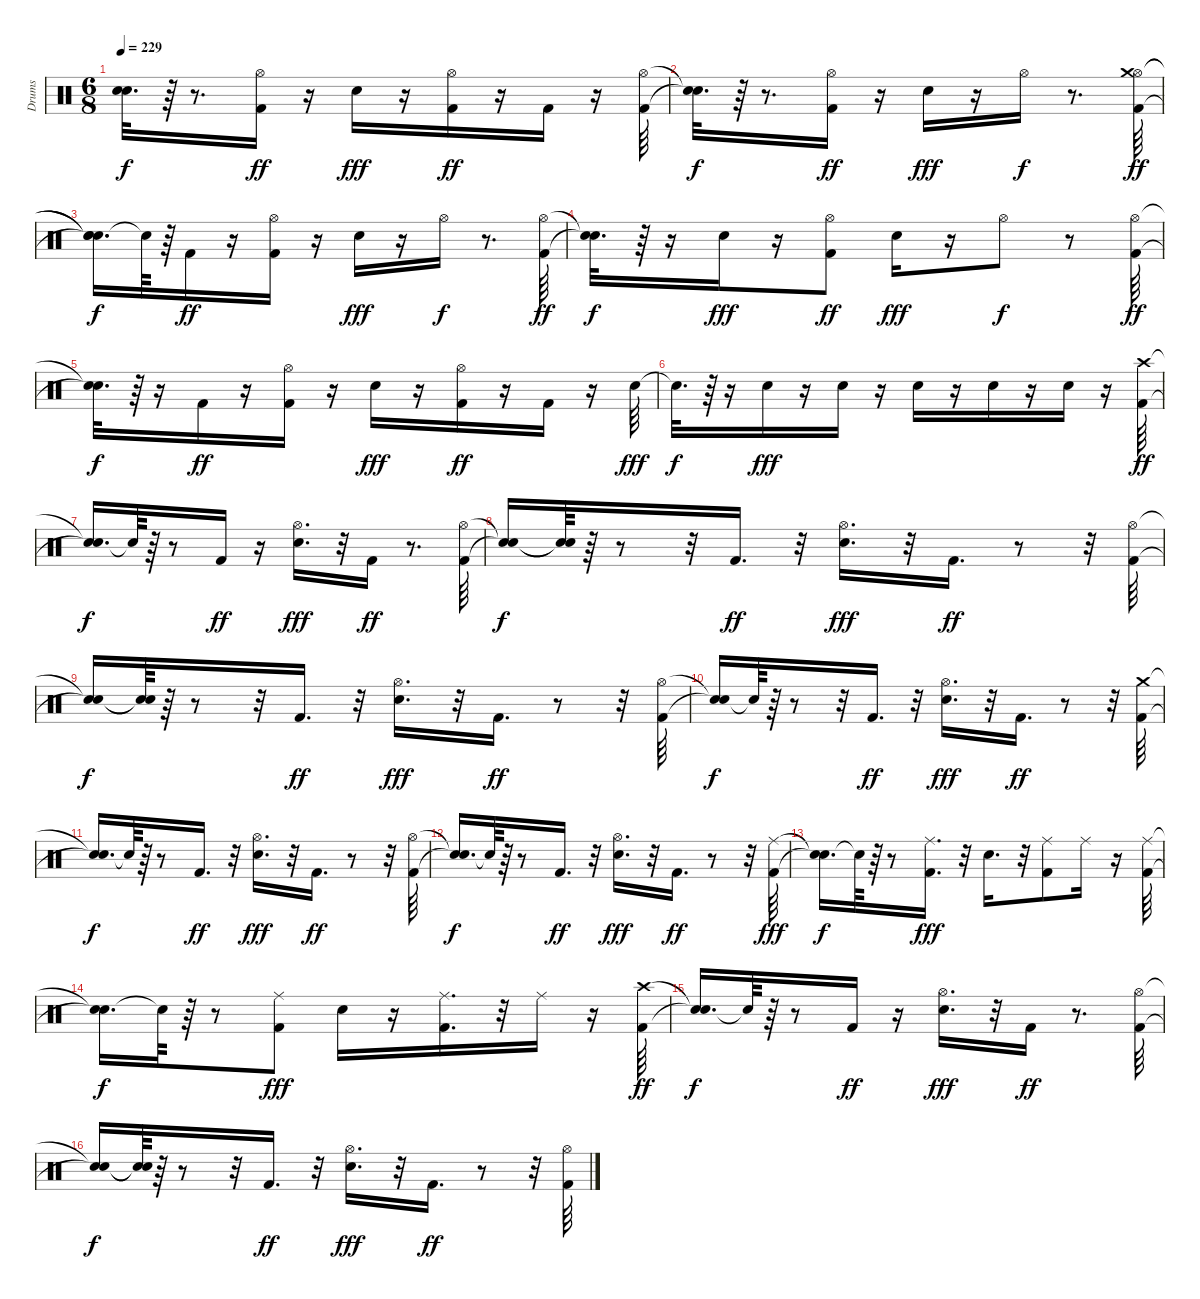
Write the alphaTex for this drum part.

\track ("Drums" "Drums") {instrument percussion}
\staff {score}
\articulation defaults
\ts (6 8)
\tempo 229
\clef neutral
\ks c
("Snare (hit)"{t} "Snare (hit)"{t}).32{d dy f} r.64 r.8{d} ("Kick (hit) 2" "Hi-Hat (open)").16{dy ff} r.16 "Snare (hit) 2".16{dy fff} r.16 ("Kick (hit) 2" "Hi-Hat (open)").16{dy ff} r.16 "Kick (hit) 2".16 r.16 ("Kick (hit) 2" "Hi-Hat (open)").64 |
("Snare (hit)"{t} "Snare (hit)"{t}).32{d dy f} r.64 r.8{d} ("Kick (hit) 2" "Hi-Hat (open)").16{dy ff} r.16 "Snare (hit) 2".16{dy fff} r.16 "Hi-Hat (open)".16{dy f} r.8{d} ("Kick (hit) 2" "Hi-Hat (open)" "Crash medium (hit)").64{dy ff} |
("Snare (hit)"{t} "Snare (hit)"{t} "Snare (hit)"{t}).16{d dy f} "Snare (hit)"{t}.64 r.64 "Kick (hit) 2".16{dy ff} r.16 ("Kick (hit) 2" "Hi-Hat (open)").16 r.16 "Snare (hit) 2".16{dy fff} r.16 "Hi-Hat (open)".16{dy f} r.8{d} ("Kick (hit) 2" "Hi-Hat (open)").64{dy ff} |
("Snare (hit)"{t} "Snare (hit)"{t}).32{d dy f} r.64 r.16 "Snare (hit) 2".16{dy fff} r.16 ("Kick (hit) 2" "Hi-Hat (open)").8{dy ff} "Snare (hit) 2".16{dy fff} r.16 "Hi-Hat (open)".8{dy f} r.8 ("Kick (hit) 2" "Hi-Hat (open)").64{dy ff} |
("Snare (hit)"{t} "Snare (hit)"{t}).32{d dy f} r.64 r.16 "Kick (hit) 2".16{dy ff} r.16 ("Kick (hit) 2" "Hi-Hat (open)").16 r.16 "Snare (hit) 2".16{dy fff} r.16 ("Kick (hit) 2" "Hi-Hat (open)").16{dy ff} r.16 "Kick (hit) 2".16 r.16 "Snare (hit) 2".64{dy fff} |
"Snare (hit)"{t}.32{d dy f} r.64 r.16 "Snare (hit) 2".16{dy fff} r.16 "Snare (hit) 2".16 r.16 "Snare (hit) 2".16 r.16 "Snare (hit) 2".16 r.16 "Snare (hit) 2".16 r.16 ("Kick (hit) 2" "Crash high (hit)").64{dy ff} |
("Snare (hit)"{t} "Snare (hit)"{t}).16{d dy f} "Snare (hit)"{t}.64 r.64 r.8 "Kick (hit) 2".16{dy ff} r.16 ("Snare (hit) 2" "Hi-Hat (open)").16{d dy fff} r.32 "Kick (hit) 2".16{dy ff} r.8{d} ("Kick (hit) 2" "Hi-Hat (open)").64 |
("Snare (hit)"{t} "Snare (hit)"{t}).16{dy f} ("Snare (hit)"{t} "Snare (hit)"{t}).64 r.64 r.8 r.32 "Kick (hit) 2".16{d dy ff} r.32 ("Snare (hit) 2" "Hi-Hat (open)").16{d dy fff} r.32 "Kick (hit) 2".16{d dy ff} r.8 r.32 ("Kick (hit) 2" "Hi-Hat (open)").64 |
("Snare (hit)"{t} "Snare (hit)"{t}).16{dy f} ("Snare (hit)"{t} "Snare (hit)"{t}).64 r.64 r.8 r.32 "Kick (hit) 2".16{d dy ff} r.32 ("Snare (hit) 2" "Hi-Hat (open)").16{d dy fff} r.32 "Kick (hit) 2".16{d dy ff} r.8 r.32 ("Kick (hit) 2" "Hi-Hat (open)").64 |
("Snare (hit)"{t} "Snare (hit)"{t}).16{dy f} "Snare (hit)"{t}.64 r.64 r.8 r.32 "Kick (hit) 2".16{d dy ff} r.32 ("Snare (hit) 2" "Hi-Hat (open)").16{d dy fff} r.32 "Kick (hit) 2".16{d dy ff} r.8 r.32 ("Kick (hit) 2" "Crash medium (hit)").64 |
("Snare (hit)"{t} "Snare (hit)"{t}).16{d dy f} "Snare (hit)"{t}.64 r.64 r.8 "Kick (hit) 2".16{d dy ff} r.32 ("Snare (hit) 2" "Hi-Hat (open)").16{d dy fff} r.32 "Kick (hit) 2".16{d dy ff} r.8 r.32 ("Kick (hit) 2" "Hi-Hat (open)").64 |
("Snare (hit)"{t} "Snare (hit)"{t}).16{d dy f} "Snare (hit)"{t}.64 r.64 r.8 "Kick (hit) 2".16{d dy ff} r.32 ("Snare (hit) 2" "Hi-Hat (open)").16{d dy fff} r.32 "Kick (hit) 2".16{d dy ff} r.8 r.32 ("Kick (hit) 2" "Ride (middle)").64{dy fff} |
("Snare (hit)"{t} "Snare (hit)"{t}).16{d dy f} "Snare (hit)"{t}.64 r.64 r.8 ("Kick (hit) 2" "Ride (middle)").16{d dy fff} r.32 "Snare (hit) 2".16{d} r.32 ("Kick (hit) 2" "Ride (middle)").8 "Ride (middle)".16 r.16 ("Kick (hit) 2" "Ride (middle)").64 |
("Snare (hit)"{t} "Snare (hit)"{t}).16{d dy f} "Snare (hit)"{t}.64 r.64 r.8 ("Kick (hit) 2" "Ride (middle)").8{dy fff} "Snare (hit) 2".16 r.16 ("Kick (hit) 2" "Ride (middle)").16{d} r.32 "Ride (middle)".16 r.16 ("Kick (hit) 2" "Crash high (hit)").64{dy ff} |
("Snare (hit)"{t} "Snare (hit)"{t}).16{d dy f} "Snare (hit)"{t}.64 r.64 r.8 "Kick (hit) 2".16{dy ff} r.16 ("Snare (hit) 2" "Hi-Hat (open)").16{d dy fff} r.32 "Kick (hit) 2".16{dy ff} r.8{d} ("Kick (hit) 2" "Hi-Hat (open)").64 |
("Snare (hit)"{t} "Snare (hit)"{t}).16{dy f} ("Snare (hit)"{t} "Snare (hit)"{t}).64 r.64 r.8 r.32 "Kick (hit) 2".16{d dy ff} r.32 ("Snare (hit) 2" "Hi-Hat (open)").16{d dy fff} r.32 "Kick (hit) 2".16{d dy ff} r.8 r.32 ("Kick (hit) 2" "Hi-Hat (open)").64
